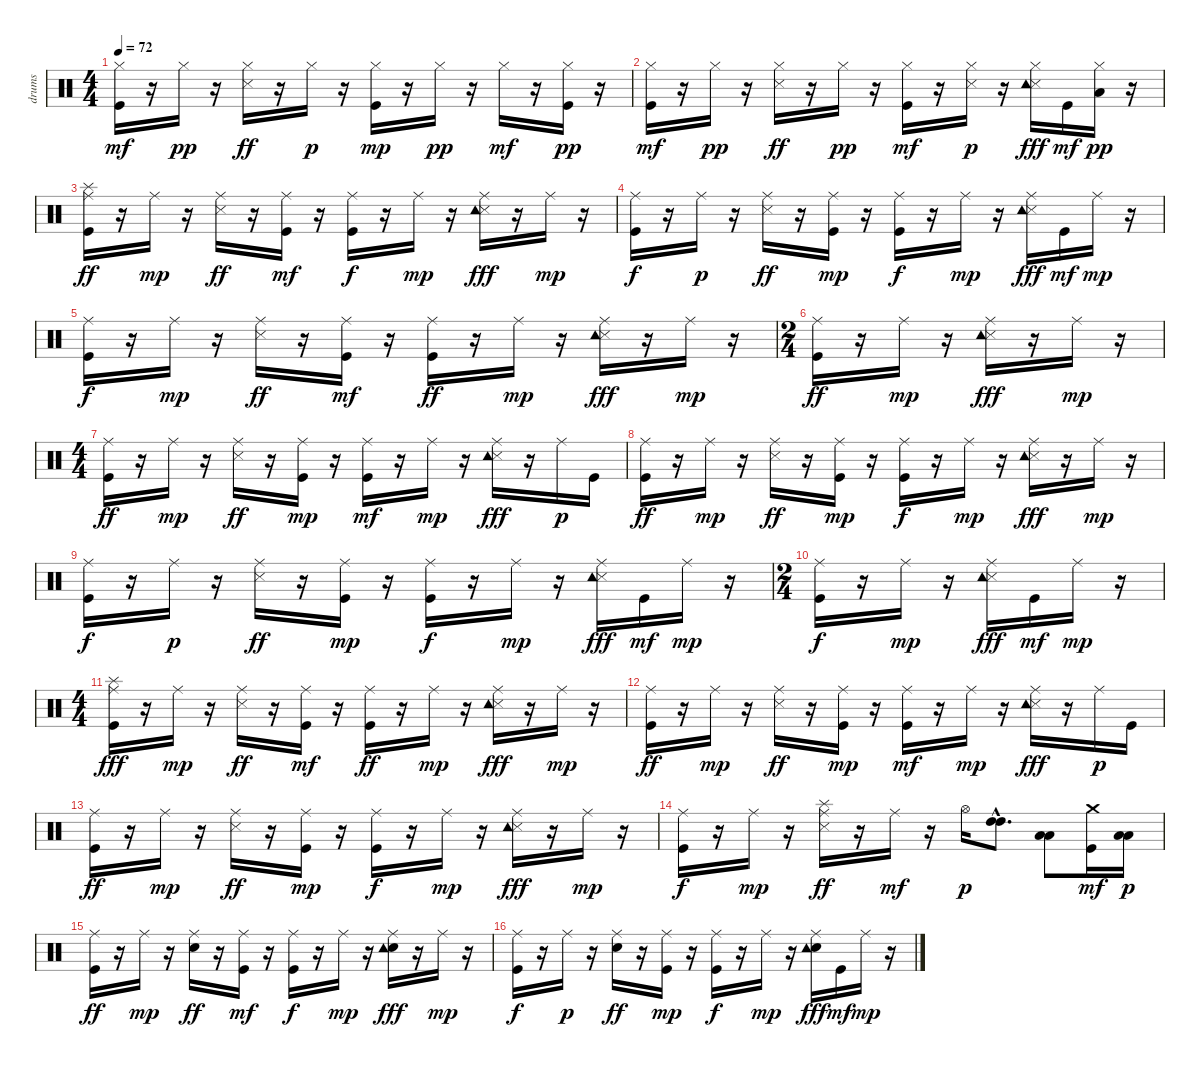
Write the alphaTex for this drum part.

\track ("drums" "drums") {instrument percussion}
\staff {score}
\articulation defaults
\ts (4 4)
\tempo 72
\clef neutral
\ks c
("Hi-Hat (closed)" "Kick (hit)").16{dy mf} r.16 "Hi-Hat (closed)".16{dy pp} r.16 ("Hi-Hat (closed)" "Snare (side stick) 3").16{dy ff} r.16 "Hi-Hat (closed)".16{dy p} r.16 ("Kick (hit)" "Hi-Hat (closed)").16{dy mp} r.16 "Hi-Hat (closed)".16{dy pp} r.16 "Hi-Hat (closed)".16{dy mf} r.16 ("Hi-Hat (closed)" "Kick (hit)").16{dy pp} r.16 |
("Hi-Hat (closed)" "Kick (hit)").16{dy mf} r.16 "Hi-Hat (closed)".16{dy pp} r.16 ("Hi-Hat (closed)" "Snare (side stick) 3").16{dy ff} r.16 "Hi-Hat (closed)".16{dy pp} r.16 ("Hi-Hat (closed)" "Kick (hit)").16{dy mf} r.16 ("Snare (side stick) 3" "Hi-Hat (closed)").16{dy p} r.16 ("Hi-Hat (closed)" "Snare (side stick) 3" "Tambourine (hit)").16{dy fff} "Kick (hit)".16{dy mf} ("Low Floor Tom (hit)" "Hi-Hat (closed)").16{dy pp} r.16 |
("Splash (hit)" "Ride (middle)" "Kick (hit)").16{dy ff} r.16 "Ride (middle)".16{dy mp} r.16 ("Snare (side stick) 3" "Ride (middle)").16{dy ff} r.16 ("Ride (middle)" "Kick (hit)").16{dy mf} r.16 ("Kick (hit)" "Ride (middle)").16{dy f} r.16 "Ride (middle)".16{dy mp} r.16 ("Snare (side stick) 3" "Ride (middle)" "Tambourine (hit)").16{dy fff} r.16 "Ride (middle)".16{dy mp} r.16 |
("Ride (middle)" "Kick (hit)").16{dy f} r.16 "Ride (middle)".16{dy p} r.16 ("Snare (side stick) 3" "Ride (middle)").16{dy ff} r.16 ("Ride (middle)" "Kick (hit)").16{dy mp} r.16 ("Ride (middle)" "Kick (hit)").16{dy f} r.16 "Ride (middle)".16{dy mp} r.16 ("Snare (side stick) 3" "Ride (middle)" "Tambourine (hit)").16{dy fff} "Kick (hit)".16{dy mf} "Ride (middle)".16{dy mp} r.16 |
("Kick (hit)" "Ride (middle)").16{dy f} r.16 "Ride (middle)".16{dy mp} r.16 ("Snare (side stick) 3" "Ride (middle)").16{dy ff} r.16 ("Ride (middle)" "Kick (hit)").16{dy mf} r.16 ("Ride (middle)" "Kick (hit)").16{dy ff} r.16 "Ride (middle)".16{dy mp} r.16 ("Snare (side stick) 3" "Ride (middle)" "Tambourine (hit)").16{dy fff} r.16 "Ride (middle)".16{dy mp} r.16 |
\ts (2 4)
("Kick (hit)" "Ride (middle)").16{dy ff} r.16 "Ride (middle)".16{dy mp} r.16 ("Snare (side stick) 3" "Ride (middle)" "Tambourine (hit)").16{dy fff} r.16 "Ride (middle)".16{dy mp} r.16 |
\ts (4 4)
("Kick (hit)" "Ride (middle)").16{dy ff} r.16 "Ride (middle)".16{dy mp} r.16 ("Snare (side stick) 3" "Ride (middle)").16{dy ff} r.16 ("Kick (hit)" "Ride (middle)").16{dy mp} r.16 ("Kick (hit)" "Ride (middle)").16{dy mf} r.16 "Ride (middle)".16{dy mp} r.16 ("Snare (side stick) 3" "Ride (middle)" "Tambourine (hit)").16{dy fff} r.16 "Ride (middle)".16{dy p} "Kick (hit)".16 |
("Ride (middle)" "Kick (hit)").16{dy ff} r.16 "Ride (middle)".16{dy mp} r.16 ("Snare (side stick) 3" "Ride (middle)").16{dy ff} r.16 ("Kick (hit)" "Ride (middle)").16{dy mp} r.16 ("Kick (hit)" "Ride (middle)").16{dy f} r.16 "Ride (middle)".16{dy mp} r.16 ("Snare (side stick) 3" "Ride (middle)" "Tambourine (hit)").16{dy fff} r.16 "Ride (middle)".16{dy mp} r.16 |
("Ride (middle)" "Kick (hit)").16{dy f} r.16 "Ride (middle)".16{dy p} r.16 ("Snare (side stick) 3" "Ride (middle)").16{dy ff} r.16 ("Ride (middle)" "Kick (hit)").16{dy mp} r.16 ("Ride (middle)" "Kick (hit)").16{dy f} r.16 "Ride (middle)".16{dy mp} r.16 ("Snare (side stick) 3" "Ride (middle)" "Tambourine (hit)").16{dy fff} "Kick (hit)".16{dy mf} "Ride (middle)".16{dy mp} r.16 |
\ts (2 4)
("Kick (hit)" "Ride (middle)").16{dy f} r.16 "Ride (middle)".16{dy mp} r.16 ("Snare (side stick) 3" "Ride (middle)" "Tambourine (hit)").16{dy fff} "Kick (hit)".16{dy mf} "Ride (middle)".16{dy mp} r.16 |
\ts (4 4)
("Splash (hit)" "Kick (hit)" "Ride (middle)").16{dy fff} r.16 "Ride (middle)".16{dy mp} r.16 ("Snare (side stick) 3" "Ride (middle)").16{dy ff} r.16 ("Ride (middle)" "Kick (hit)").16{dy mf} r.16 ("Ride (middle)" "Kick (hit)").16{dy ff} r.16 "Ride (middle)".16{dy mp} r.16 ("Snare (side stick) 3" "Ride (middle)" "Tambourine (hit)").16{dy fff} r.16 "Ride (middle)".16{dy mp} r.16 |
("Kick (hit)" "Ride (middle)").16{dy ff} r.16 "Ride (middle)".16{dy mp} r.16 ("Snare (side stick) 3" "Ride (middle)").16{dy ff} r.16 ("Kick (hit)" "Ride (middle)").16{dy mp} r.16 ("Kick (hit)" "Ride (middle)").16{dy mf} r.16 "Ride (middle)".16{dy mp} r.16 ("Snare (side stick) 3" "Ride (middle)" "Tambourine (hit)").16{dy fff} r.16 "Ride (middle)".16{dy p} "Kick (hit)".16 |
("Kick (hit)" "Ride (middle)").16{dy ff} r.16 "Ride (middle)".16{dy mp} r.16 ("Snare (side stick) 3" "Ride (middle)").16{dy ff} r.16 ("Kick (hit)" "Ride (middle)").16{dy mp} r.16 ("Kick (hit)" "Ride (middle)").16{dy f} r.16 "Ride (middle)".16{dy mp} r.16 ("Snare (side stick) 3" "Ride (middle)" "Tambourine (hit)").16{dy fff} r.16 "Ride (middle)".16{dy mp} r.16 |
("Ride (middle)" "Kick (hit)").16{dy f} r.16 "Ride (middle)".16{dy mp} r.16 ("Ride (middle)" "Splash (hit)" "Snare (side stick) 3").16{dy ff} r.16 "Ride (middle)".16{dy mf} r.16 "Hi-Hat (open)".16{dy p} ("High Tom (hit)"{hac} "High Tom (hit)").8{d} ("Low Tom (hit)" "Low Tom (hit)").8 ("Crash medium (hit)" "Kick (hit)").16{dy mf} ("Low Floor Tom (hit)" "Low Floor Tom (hit)").16{dy p} |
("Ride (middle)" "Kick (hit)").16{dy ff} r.16 "Ride (middle)".16{dy mp} r.16 ("Snare (hit) 2" "Ride (middle)").16{dy ff} r.16 ("Ride (middle)" "Kick (hit)").16{dy mf} r.16 ("Kick (hit)" "Ride (middle)").16{dy f} r.16 "Ride (middle)".16{dy mp} r.16 ("Snare (hit) 2" "Ride (middle)" "Tambourine (hit)").16{dy fff} r.16 "Ride (middle)".16{dy mp} r.16 |
("Ride (middle)" "Kick (hit)").16{dy f} r.16 "Ride (middle)".16{dy p} r.16 ("Snare (hit) 2" "Ride (middle)").16{dy ff} r.16 ("Ride (middle)" "Kick (hit)").16{dy mp} r.16 ("Ride (middle)" "Kick (hit)").16{dy f} r.16 "Ride (middle)".16{dy mp} r.16 ("Snare (hit) 2" "Ride (middle)" "Tambourine (hit)").16{dy fff} "Kick (hit)".16{dy mf} "Ride (middle)".16{dy mp} r.16
